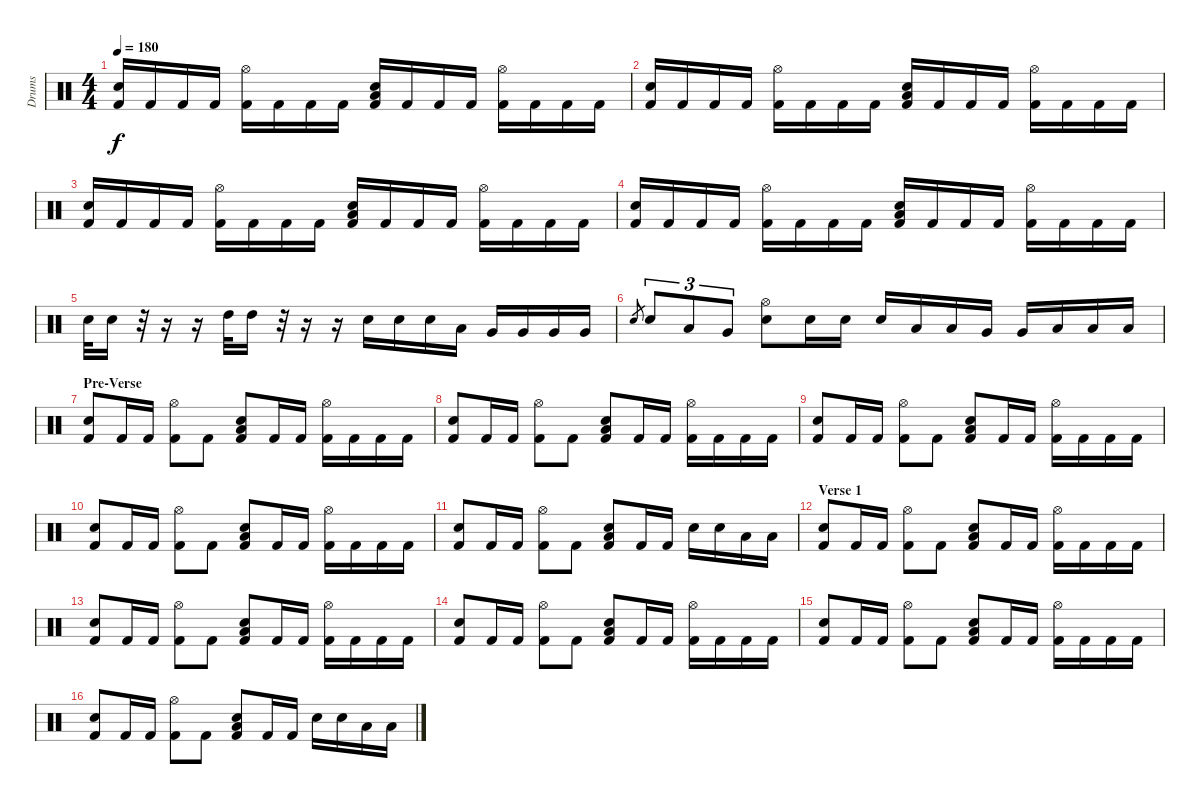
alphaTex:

\track ("Drums" "Drums") {instrument percussion}
\staff {score}
\articulation defaults
\ts (4 4)
\tempo 180
\clef neutral
\ks c
("Kick (hit) 2" "Electric Snare (hit)").16{dy f} "Kick (hit) 2".16 "Kick (hit) 2".16 "Kick (hit) 2".16 ("Kick (hit) 2" "Hi-Hat (open)").16 "Kick (hit) 2".16 "Kick (hit) 2".16 "Kick (hit) 2".16 ("Kick (hit) 2" "Low Tom (hit)" "Electric Snare (hit)").16 "Kick (hit) 2".16 "Kick (hit) 2".16 "Kick (hit) 2".16 ("Kick (hit) 2" "Hi-Hat (open)").16 "Kick (hit) 2".16 "Kick (hit) 2".16 "Kick (hit) 2".16 |
("Kick (hit) 2" "Electric Snare (hit)").16 "Kick (hit) 2".16 "Kick (hit) 2".16 "Kick (hit) 2".16 ("Kick (hit) 2" "Hi-Hat (open)").16 "Kick (hit) 2".16 "Kick (hit) 2".16 "Kick (hit) 2".16 ("Kick (hit) 2" "Low Tom (hit)" "Electric Snare (hit)").16 "Kick (hit) 2".16 "Kick (hit) 2".16 "Kick (hit) 2".16 ("Kick (hit) 2" "Hi-Hat (open)").16 "Kick (hit) 2".16 "Kick (hit) 2".16 "Kick (hit) 2".16 |
("Kick (hit) 2" "Electric Snare (hit)").16 "Kick (hit) 2".16 "Kick (hit) 2".16 "Kick (hit) 2".16 ("Kick (hit) 2" "Hi-Hat (open)").16 "Kick (hit) 2".16 "Kick (hit) 2".16 "Kick (hit) 2".16 ("Kick (hit) 2" "Low Tom (hit)" "Electric Snare (hit)").16 "Kick (hit) 2".16 "Kick (hit) 2".16 "Kick (hit) 2".16 ("Kick (hit) 2" "Hi-Hat (open)").16 "Kick (hit) 2".16 "Kick (hit) 2".16 "Kick (hit) 2".16 |
("Kick (hit) 2" "Electric Snare (hit)").16 "Kick (hit) 2".16 "Kick (hit) 2".16 "Kick (hit) 2".16 ("Kick (hit) 2" "Hi-Hat (open)").16 "Kick (hit) 2".16 "Kick (hit) 2".16 "Kick (hit) 2".16 ("Kick (hit) 2" "Low Tom (hit)" "Electric Snare (hit)").16 "Kick (hit) 2".16 "Kick (hit) 2".16 "Kick (hit) 2".16 ("Kick (hit) 2" "Hi-Hat (open)").16 "Kick (hit) 2".16 "Kick (hit) 2".16 "Kick (hit) 2".16 |
"Electric Snare (hit)".32 "Electric Snare (hit)".16 r.32 r.16 r.16 "High Tom (hit)".32 "High Tom (hit)".16 r.32 r.16 r.16 "Electric Snare (hit)".16 "Electric Snare (hit)".16 "Electric Snare (hit)".16 "Low Tom (hit)".16 "Very Low Tom (hit)".16 "Very Low Tom (hit)".16 "Very Low Tom (hit)".16 "Very Low Tom (hit)".16 |
"Electric Snare (hit)".8{gr} "Electric Snare (hit)".8{tu (3 2)} "Low Tom (hit)".8{tu (3 2)} "Very Low Tom (hit)".8{tu (3 2)} ("Electric Snare (hit)" "Hi-Hat (open)").8 "Electric Snare (hit)".16 "Electric Snare (hit)".16 "Electric Snare (hit)".16 "Low Tom (hit)".16 "Low Tom (hit)".16 "Very Low Tom (hit)".16 "Very Low Tom (hit)".16 "Low Floor Tom (hit)".16 "Low Floor Tom (hit)".16 "Low Floor Tom (hit)".16 |
\section ("" "Pre-Verse")
("Kick (hit) 2" "Electric Snare (hit)").8 "Kick (hit) 2".16 "Kick (hit) 2".16 ("Kick (hit) 2" "Hi-Hat (open)").8 "Kick (hit) 2".8 ("Kick (hit) 2" "Low Tom (hit)" "Electric Snare (hit)").8 "Kick (hit) 2".16 "Kick (hit) 2".16 ("Kick (hit) 2" "Hi-Hat (open)").16 "Kick (hit) 2".16 "Kick (hit) 2".16 "Kick (hit) 2".16 |
("Kick (hit) 2" "Electric Snare (hit)").8 "Kick (hit) 2".16 "Kick (hit) 2".16 ("Kick (hit) 2" "Hi-Hat (open)").8 "Kick (hit) 2".8 ("Kick (hit) 2" "Low Tom (hit)" "Electric Snare (hit)").8 "Kick (hit) 2".16 "Kick (hit) 2".16 ("Kick (hit) 2" "Hi-Hat (open)").16 "Kick (hit) 2".16 "Kick (hit) 2".16 "Kick (hit) 2".16 |
("Kick (hit) 2" "Electric Snare (hit)").8 "Kick (hit) 2".16 "Kick (hit) 2".16 ("Kick (hit) 2" "Hi-Hat (open)").8 "Kick (hit) 2".8 ("Kick (hit) 2" "Low Tom (hit)" "Electric Snare (hit)").8 "Kick (hit) 2".16 "Kick (hit) 2".16 ("Kick (hit) 2" "Hi-Hat (open)").16 "Kick (hit) 2".16 "Kick (hit) 2".16 "Kick (hit) 2".16 |
("Kick (hit) 2" "Electric Snare (hit)").8 "Kick (hit) 2".16 "Kick (hit) 2".16 ("Kick (hit) 2" "Hi-Hat (open)").8 "Kick (hit) 2".8 ("Kick (hit) 2" "Low Tom (hit)" "Electric Snare (hit)").8 "Kick (hit) 2".16 "Kick (hit) 2".16 ("Kick (hit) 2" "Hi-Hat (open)").16 "Kick (hit) 2".16 "Kick (hit) 2".16 "Kick (hit) 2".16 |
("Kick (hit) 2" "Electric Snare (hit)").8 "Kick (hit) 2".16 "Kick (hit) 2".16 ("Kick (hit) 2" "Hi-Hat (open)").8 "Kick (hit) 2".8 ("Kick (hit) 2" "Low Tom (hit)" "Electric Snare (hit)").8 "Kick (hit) 2".16 "Kick (hit) 2".16 "Electric Snare (hit)".16 "Electric Snare (hit)".16 "Low Tom (hit)".16 "Low Tom (hit)".16 |
\section ("" "Verse 1")
("Kick (hit) 2" "Electric Snare (hit)").8 "Kick (hit) 2".16 "Kick (hit) 2".16 ("Kick (hit) 2" "Hi-Hat (open)").8 "Kick (hit) 2".8 ("Kick (hit) 2" "Low Tom (hit)" "Electric Snare (hit)").8 "Kick (hit) 2".16 "Kick (hit) 2".16 ("Kick (hit) 2" "Hi-Hat (open)").16 "Kick (hit) 2".16 "Kick (hit) 2".16 "Kick (hit) 2".16 |
("Kick (hit) 2" "Electric Snare (hit)").8 "Kick (hit) 2".16 "Kick (hit) 2".16 ("Kick (hit) 2" "Hi-Hat (open)").8 "Kick (hit) 2".8 ("Kick (hit) 2" "Low Tom (hit)" "Electric Snare (hit)").8 "Kick (hit) 2".16 "Kick (hit) 2".16 ("Kick (hit) 2" "Hi-Hat (open)").16 "Kick (hit) 2".16 "Kick (hit) 2".16 "Kick (hit) 2".16 |
("Kick (hit) 2" "Electric Snare (hit)").8 "Kick (hit) 2".16 "Kick (hit) 2".16 ("Kick (hit) 2" "Hi-Hat (open)").8 "Kick (hit) 2".8 ("Kick (hit) 2" "Low Tom (hit)" "Electric Snare (hit)").8 "Kick (hit) 2".16 "Kick (hit) 2".16 ("Kick (hit) 2" "Hi-Hat (open)").16 "Kick (hit) 2".16 "Kick (hit) 2".16 "Kick (hit) 2".16 |
("Kick (hit) 2" "Electric Snare (hit)").8 "Kick (hit) 2".16 "Kick (hit) 2".16 ("Kick (hit) 2" "Hi-Hat (open)").8 "Kick (hit) 2".8 ("Kick (hit) 2" "Low Tom (hit)" "Electric Snare (hit)").8 "Kick (hit) 2".16 "Kick (hit) 2".16 ("Kick (hit) 2" "Hi-Hat (open)").16 "Kick (hit) 2".16 "Kick (hit) 2".16 "Kick (hit) 2".16 |
("Kick (hit) 2" "Electric Snare (hit)").8 "Kick (hit) 2".16 "Kick (hit) 2".16 ("Kick (hit) 2" "Hi-Hat (open)").8 "Kick (hit) 2".8 ("Kick (hit) 2" "Low Tom (hit)" "Electric Snare (hit)").8 "Kick (hit) 2".16 "Kick (hit) 2".16 "Electric Snare (hit)".16 "Electric Snare (hit)".16 "Low Tom (hit)".16 "Low Tom (hit)".16
